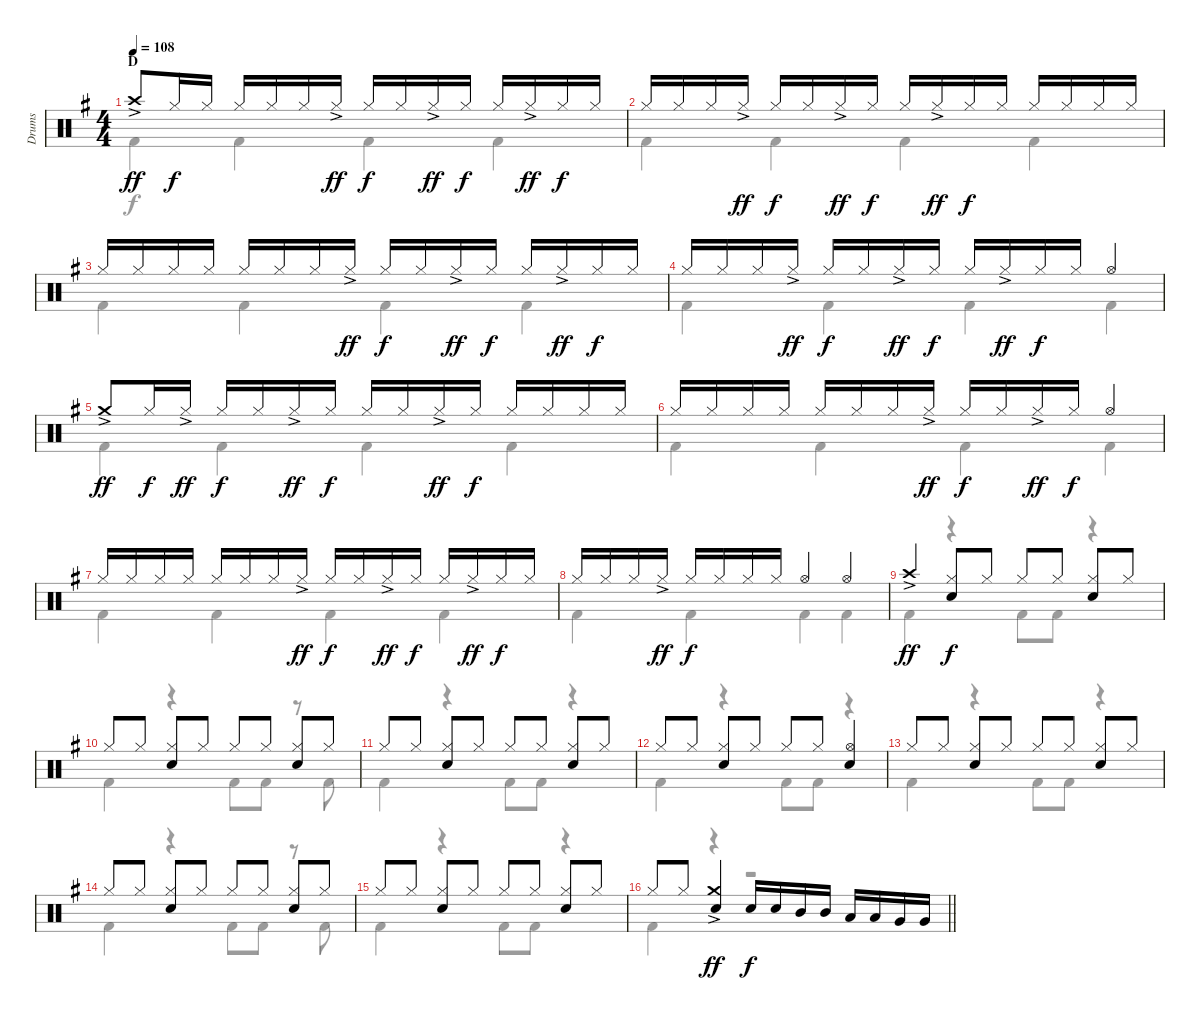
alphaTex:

\track ("Drums" "Drums") {instrument percussion}
\staff {score}
\articulation defaults
\voice
\ts (4 4)
\section ("" "D")
\tempo 108
\clef neutral
\ks g "Crash high (hit)"{ac}.8{dy ff} "Hi-Hat (closed)".16{dy f} "Hi-Hat (closed)".16 "Hi-Hat (closed)".16 "Hi-Hat (closed)".16 "Hi-Hat (closed)".16 "Hi-Hat (closed)"{ac}.16{dy ff} "Hi-Hat (closed)".16{dy f} "Hi-Hat (closed)".16 "Hi-Hat (closed)"{ac}.16{dy ff} "Hi-Hat (closed)".16{dy f} "Hi-Hat (closed)".16 "Hi-Hat (closed)"{ac}.16{dy ff} "Hi-Hat (closed)".16{dy f} "Hi-Hat (closed)".16
|
"Hi-Hat (closed)".16 "Hi-Hat (closed)".16 "Hi-Hat (closed)".16 "Hi-Hat (closed)"{ac}.16{dy ff} "Hi-Hat (closed)".16{dy f} "Hi-Hat (closed)".16 "Hi-Hat (closed)"{ac}.16{dy ff} "Hi-Hat (closed)".16{dy f} "Hi-Hat (closed)".16 "Hi-Hat (closed)"{ac}.16{dy ff} "Hi-Hat (closed)".16{dy f} "Hi-Hat (closed)".16 "Hi-Hat (closed)".16 "Hi-Hat (closed)".16 "Hi-Hat (closed)".16 "Hi-Hat (closed)".16 |
"Hi-Hat (closed)".16 "Hi-Hat (closed)".16 "Hi-Hat (closed)".16 "Hi-Hat (closed)".16 "Hi-Hat (closed)".16 "Hi-Hat (closed)".16 "Hi-Hat (closed)".16 "Hi-Hat (closed)"{ac}.16{dy ff} "Hi-Hat (closed)".16{dy f} "Hi-Hat (closed)".16 "Hi-Hat (closed)"{ac}.16{dy ff} "Hi-Hat (closed)".16{dy f} "Hi-Hat (closed)".16 "Hi-Hat (closed)"{ac}.16{dy ff} "Hi-Hat (closed)".16{dy f} "Hi-Hat (closed)".16 |
"Hi-Hat (closed)".16 "Hi-Hat (closed)".16 "Hi-Hat (closed)".16 "Hi-Hat (closed)"{ac}.16{dy ff} "Hi-Hat (closed)".16{dy f} "Hi-Hat (closed)".16 "Hi-Hat (closed)"{ac}.16{dy ff} "Hi-Hat (closed)".16{dy f} "Hi-Hat (closed)".16 "Hi-Hat (closed)"{ac}.16{dy ff} "Hi-Hat (closed)".16{dy f} "Hi-Hat (closed)".16 "Hi-Hat (open)".4 |
"Crash medium (hit)"{ac}.8{dy ff} "Hi-Hat (closed)".16{dy f} "Hi-Hat (closed)"{ac}.16{dy ff} "Hi-Hat (closed)".16{dy f} "Hi-Hat (closed)".16 "Hi-Hat (closed)"{ac}.16{dy ff} "Hi-Hat (closed)".16{dy f} "Hi-Hat (closed)".16 "Hi-Hat (closed)".16 "Hi-Hat (closed)"{ac}.16{dy ff} "Hi-Hat (closed)".16{dy f} "Hi-Hat (closed)".16 "Hi-Hat (closed)".16 "Hi-Hat (closed)".16 "Hi-Hat (closed)".16 |
"Hi-Hat (closed)".16 "Hi-Hat (closed)".16 "Hi-Hat (closed)".16 "Hi-Hat (closed)".16 "Hi-Hat (closed)".16 "Hi-Hat (closed)".16 "Hi-Hat (closed)".16 "Hi-Hat (closed)"{ac}.16{dy ff} "Hi-Hat (closed)".16{dy f} "Hi-Hat (closed)".16 "Hi-Hat (closed)"{ac}.16{dy ff} "Hi-Hat (closed)".16{dy f} "Hi-Hat (open)".4 |
"Hi-Hat (closed)".16 "Hi-Hat (closed)".16 "Hi-Hat (closed)".16 "Hi-Hat (closed)".16 "Hi-Hat (closed)".16 "Hi-Hat (closed)".16 "Hi-Hat (closed)".16 "Hi-Hat (closed)"{ac}.16{dy ff} "Hi-Hat (closed)".16{dy f} "Hi-Hat (closed)".16 "Hi-Hat (closed)"{ac}.16{dy ff} "Hi-Hat (closed)".16{dy f} "Hi-Hat (closed)".16 "Hi-Hat (closed)"{ac}.16{dy ff} "Hi-Hat (closed)".16{dy f} "Hi-Hat (closed)".16 |
"Hi-Hat (closed)".16 "Hi-Hat (closed)".16 "Hi-Hat (closed)".16 "Hi-Hat (closed)"{ac}.16{dy ff} "Hi-Hat (closed)".16{dy f} "Hi-Hat (closed)".16 "Hi-Hat (closed)".16 "Hi-Hat (closed)".16 "Hi-Hat (open)".4 "Hi-Hat (open)".4 |
"Crash high (hit)"{ac}.4{dy ff} ("Hi-Hat (closed)" "Snare (hit) 2").8{dy f} "Hi-Hat (closed)".8 "Hi-Hat (closed)".8 "Hi-Hat (closed)".8 ("Hi-Hat (closed)" "Snare (hit) 2").8 "Hi-Hat (closed)".8 |
"Hi-Hat (closed)".8 "Hi-Hat (closed)".8 ("Hi-Hat (closed)" "Snare (hit) 2").8 "Hi-Hat (closed)".8 "Hi-Hat (closed)".8 "Hi-Hat (closed)".8 ("Hi-Hat (closed)" "Snare (hit) 2").8 "Hi-Hat (closed)".8 |
"Hi-Hat (closed)".8 "Hi-Hat (closed)".8 ("Hi-Hat (closed)" "Snare (hit) 2").8 "Hi-Hat (closed)".8 "Hi-Hat (closed)".8 "Hi-Hat (closed)".8 ("Hi-Hat (closed)" "Snare (hit) 2").8 "Hi-Hat (closed)".8 |
"Hi-Hat (closed)".8 "Hi-Hat (closed)".8 ("Hi-Hat (closed)" "Snare (hit) 2").8 "Hi-Hat (closed)".8 "Hi-Hat (closed)".8 "Hi-Hat (closed)".8 ("Hi-Hat (open)" "Snare (hit) 2").4 |
"Hi-Hat (closed)".8 "Hi-Hat (closed)".8 ("Hi-Hat (closed)" "Snare (hit) 2").8 "Hi-Hat (closed)".8 "Hi-Hat (closed)".8 "Hi-Hat (closed)".8 ("Hi-Hat (closed)" "Snare (hit) 2").8 "Hi-Hat (closed)".8 |
"Hi-Hat (closed)".8 "Hi-Hat (closed)".8 ("Hi-Hat (closed)" "Snare (hit) 2").8 "Hi-Hat (closed)".8 "Hi-Hat (closed)".8 "Hi-Hat (closed)".8 ("Hi-Hat (closed)" "Snare (hit) 2").8 "Hi-Hat (closed)".8 |
"Hi-Hat (closed)".8 "Hi-Hat (closed)".8 ("Hi-Hat (closed)" "Snare (hit) 2").8 "Hi-Hat (closed)".8 "Hi-Hat (closed)".8 "Hi-Hat (closed)".8 ("Hi-Hat (closed)" "Snare (hit) 2").8 "Hi-Hat (closed)".8 |
\barLineRight lightlight "Hi-Hat (closed)".8 "Hi-Hat (closed)".8
("Crash medium (hit)"{ac} "Snare (hit) 2").4{dy ff} "Snare (hit) 2".16{dy f} "Snare (hit) 2".16 "Mid Tom (hit)".16 "Mid Tom (hit)".16 "Low Tom (hit)".16 "Low Tom (hit)".16 "Very Low Tom (hit)".16 "Very Low Tom (hit)".16
\voice
\clef neutral
\ottava regular
\simile none
\ks g "Kick (hit) 2".4{dy f} "Kick (hit) 2".4 "Kick (hit) 2".4 "Kick (hit) 2".4
|
"Kick (hit) 2".4 "Kick (hit) 2".4 "Kick (hit) 2".4 "Kick (hit) 2".4 |
"Kick (hit) 2".4 "Kick (hit) 2".4 "Kick (hit) 2".4 "Kick (hit) 2".4 |
"Kick (hit) 2".4 "Kick (hit) 2".4 "Kick (hit) 2".4 "Kick (hit) 2".4 |
"Kick (hit) 2".4 "Kick (hit) 2".4 "Kick (hit) 2".4 "Kick (hit) 2".4 |
"Kick (hit) 2".4 "Kick (hit) 2".4 "Kick (hit) 2".4 "Kick (hit) 2".4 |
"Kick (hit) 2".4 "Kick (hit) 2".4 "Kick (hit) 2".4 "Kick (hit) 2".4 |
"Kick (hit) 2".4 "Kick (hit) 2".4 "Kick (hit) 2".4 "Kick (hit) 2".4 |
"Kick (hit) 2".4 r.4 "Kick (hit) 2".8 "Kick (hit) 2".8 r.4 |
"Kick (hit) 2".4 r.4 "Kick (hit) 2".8 "Kick (hit) 2".8 r.8 "Kick (hit) 2".8 |
"Kick (hit) 2".4 r.4 "Kick (hit) 2".8 "Kick (hit) 2".8 r.4 |
"Kick (hit) 2".4 r.4 "Kick (hit) 2".8 "Kick (hit) 2".8 r.4 |
"Kick (hit) 2".4 r.4 "Kick (hit) 2".8 "Kick (hit) 2".8 r.4 |
"Kick (hit) 2".4 r.4 "Kick (hit) 2".8 "Kick (hit) 2".8 r.8 "Kick (hit) 2".8 |
"Kick (hit) 2".4 r.4 "Kick (hit) 2".8 "Kick (hit) 2".8 r.4 |
\barLineRight lightlight "Kick (hit) 2".4
r.4 r.2
